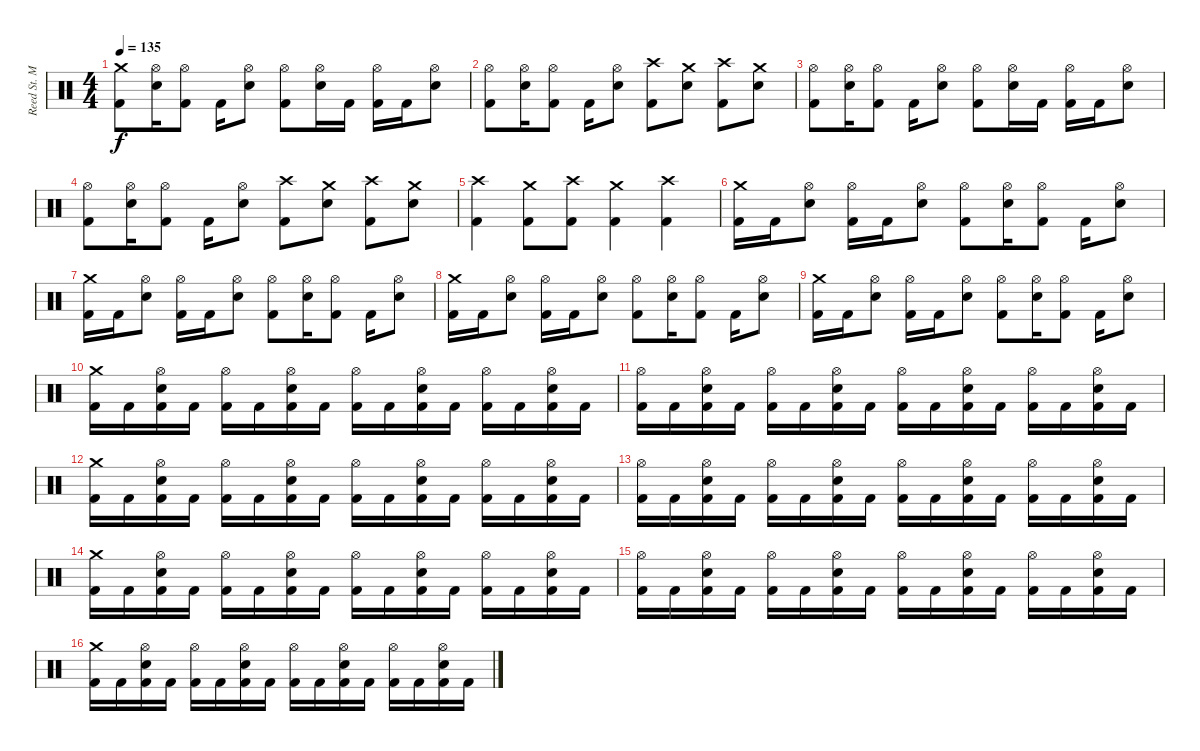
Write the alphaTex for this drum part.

\track ("Reed St. Mark" "Reed St. M") {instrument percussion}
\staff {score}
\articulation defaults
\ts (4 4)
\tempo 135
\clef neutral
\ks c
("Crash medium (hit)" "Kick (hit) 2").8{dy f} ("Hi-Hat (open)" "Snare (hit) 2").16 ("Hi-Hat (open)" "Kick (hit) 2").8 "Kick (hit) 2".16 ("Hi-Hat (open)" "Snare (hit) 2").8 ("Hi-Hat (open)" "Kick (hit) 2").8 ("Hi-Hat (open)" "Snare (hit) 2").16 "Kick (hit) 2".16 ("Hi-Hat (open)" "Kick (hit) 2").16 "Kick (hit) 2".16 ("Hi-Hat (open)" "Snare (hit) 2").8 |
("Hi-Hat (open)" "Kick (hit) 2").8 ("Hi-Hat (open)" "Snare (hit) 2").16 ("Hi-Hat (open)" "Kick (hit) 2").8 "Kick (hit) 2".16 ("Hi-Hat (open)" "Snare (hit) 2").8 ("Crash high (hit)" "Kick (hit) 2").8 ("Crash medium (hit)" "Snare (hit) 2").8 ("Crash high (hit)" "Kick (hit) 2").8 ("Crash medium (hit)" "Snare (hit) 2").8 |
("Hi-Hat (open)" "Kick (hit) 2").8 ("Hi-Hat (open)" "Snare (hit) 2").16 ("Hi-Hat (open)" "Kick (hit) 2").8 "Kick (hit) 2".16 ("Hi-Hat (open)" "Snare (hit) 2").8 ("Hi-Hat (open)" "Kick (hit) 2").8 ("Hi-Hat (open)" "Snare (hit) 2").16 "Kick (hit) 2".16 ("Hi-Hat (open)" "Kick (hit) 2").16 "Kick (hit) 2".16 ("Hi-Hat (open)" "Snare (hit) 2").8 |
("Hi-Hat (open)" "Kick (hit) 2").8 ("Hi-Hat (open)" "Snare (hit) 2").16 ("Hi-Hat (open)" "Kick (hit) 2").8 "Kick (hit) 2".16 ("Hi-Hat (open)" "Snare (hit) 2").8 ("Crash high (hit)" "Kick (hit) 2").8 ("Crash medium (hit)" "Snare (hit) 2").8 ("Crash high (hit)" "Kick (hit) 2").8 ("Crash medium (hit)" "Snare (hit) 2").8 |
("Crash high (hit)" "Kick (hit) 2").4 ("Crash medium (hit)" "Kick (hit) 2").8 ("Crash high (hit)" "Kick (hit) 2").8 ("Crash medium (hit)" "Kick (hit) 2").4 ("Crash high (hit)" "Kick (hit) 2").4 |
("Crash medium (hit)" "Kick (hit) 2").16 "Kick (hit) 2".16 ("Hi-Hat (open)" "Snare (hit) 2").8 ("Hi-Hat (open)" "Kick (hit) 2").16 "Kick (hit) 2".16 ("Hi-Hat (open)" "Snare (hit) 2").8 ("Hi-Hat (open)" "Kick (hit) 2").8 ("Hi-Hat (open)" "Snare (hit) 2").16 ("Hi-Hat (open)" "Kick (hit) 2").8 "Kick (hit) 2".16 ("Hi-Hat (open)" "Snare (hit) 2").8 |
("Crash medium (hit)" "Kick (hit) 2").16 "Kick (hit) 2".16 ("Hi-Hat (open)" "Snare (hit) 2").8 ("Hi-Hat (open)" "Kick (hit) 2").16 "Kick (hit) 2".16 ("Hi-Hat (open)" "Snare (hit) 2").8 ("Hi-Hat (open)" "Kick (hit) 2").8 ("Hi-Hat (open)" "Snare (hit) 2").16 ("Hi-Hat (open)" "Kick (hit) 2").8 "Kick (hit) 2".16 ("Hi-Hat (open)" "Snare (hit) 2").8 |
("Crash medium (hit)" "Kick (hit) 2").16 "Kick (hit) 2".16 ("Hi-Hat (open)" "Snare (hit) 2").8 ("Hi-Hat (open)" "Kick (hit) 2").16 "Kick (hit) 2".16 ("Hi-Hat (open)" "Snare (hit) 2").8 ("Hi-Hat (open)" "Kick (hit) 2").8 ("Hi-Hat (open)" "Snare (hit) 2").16 ("Hi-Hat (open)" "Kick (hit) 2").8 "Kick (hit) 2".16 ("Hi-Hat (open)" "Snare (hit) 2").8 |
("Crash medium (hit)" "Kick (hit) 2").16 "Kick (hit) 2".16 ("Hi-Hat (open)" "Snare (hit) 2").8 ("Hi-Hat (open)" "Kick (hit) 2").16 "Kick (hit) 2".16 ("Hi-Hat (open)" "Snare (hit) 2").8 ("Hi-Hat (open)" "Kick (hit) 2").8 ("Hi-Hat (open)" "Snare (hit) 2").16 ("Hi-Hat (open)" "Kick (hit) 2").8 "Kick (hit) 2".16 ("Hi-Hat (open)" "Snare (hit) 2").8 |
("Crash medium (hit)" "Kick (hit) 2").16 "Kick (hit) 2".16 ("Hi-Hat (open)" "Snare (hit) 2" "Kick (hit) 2").16 "Kick (hit) 2".16 ("Hi-Hat (open)" "Kick (hit) 2").16 "Kick (hit) 2".16 ("Hi-Hat (open)" "Snare (hit) 2" "Kick (hit) 2").16 "Kick (hit) 2".16 ("Hi-Hat (open)" "Kick (hit) 2").16 "Kick (hit) 2".16 ("Hi-Hat (open)" "Snare (hit) 2" "Kick (hit) 2").16 "Kick (hit) 2".16 ("Hi-Hat (open)" "Kick (hit) 2").16 "Kick (hit) 2".16 ("Hi-Hat (open)" "Snare (hit) 2" "Kick (hit) 2").16 "Kick (hit) 2".16 |
("Hi-Hat (open)" "Kick (hit) 2").16 "Kick (hit) 2".16 ("Hi-Hat (open)" "Snare (hit) 2" "Kick (hit) 2").16 "Kick (hit) 2".16 ("Hi-Hat (open)" "Kick (hit) 2").16 "Kick (hit) 2".16 ("Hi-Hat (open)" "Snare (hit) 2" "Kick (hit) 2").16 "Kick (hit) 2".16 ("Hi-Hat (open)" "Kick (hit) 2").16 "Kick (hit) 2".16 ("Hi-Hat (open)" "Snare (hit) 2" "Kick (hit) 2").16 "Kick (hit) 2".16 ("Hi-Hat (open)" "Kick (hit) 2").16 "Kick (hit) 2".16 ("Hi-Hat (open)" "Snare (hit) 2" "Kick (hit) 2").16 "Kick (hit) 2".16 |
("Crash medium (hit)" "Kick (hit) 2").16 "Kick (hit) 2".16 ("Hi-Hat (open)" "Snare (hit) 2" "Kick (hit) 2").16 "Kick (hit) 2".16 ("Hi-Hat (open)" "Kick (hit) 2").16 "Kick (hit) 2".16 ("Hi-Hat (open)" "Snare (hit) 2" "Kick (hit) 2").16 "Kick (hit) 2".16 ("Hi-Hat (open)" "Kick (hit) 2").16 "Kick (hit) 2".16 ("Hi-Hat (open)" "Snare (hit) 2" "Kick (hit) 2").16 "Kick (hit) 2".16 ("Hi-Hat (open)" "Kick (hit) 2").16 "Kick (hit) 2".16 ("Hi-Hat (open)" "Snare (hit) 2" "Kick (hit) 2").16 "Kick (hit) 2".16 |
("Hi-Hat (open)" "Kick (hit) 2").16 "Kick (hit) 2".16 ("Hi-Hat (open)" "Snare (hit) 2" "Kick (hit) 2").16 "Kick (hit) 2".16 ("Hi-Hat (open)" "Kick (hit) 2").16 "Kick (hit) 2".16 ("Hi-Hat (open)" "Snare (hit) 2" "Kick (hit) 2").16 "Kick (hit) 2".16 ("Hi-Hat (open)" "Kick (hit) 2").16 "Kick (hit) 2".16 ("Hi-Hat (open)" "Snare (hit) 2" "Kick (hit) 2").16 "Kick (hit) 2".16 ("Hi-Hat (open)" "Kick (hit) 2").16 "Kick (hit) 2".16 ("Hi-Hat (open)" "Snare (hit) 2" "Kick (hit) 2").16 "Kick (hit) 2".16 |
("Crash medium (hit)" "Kick (hit) 2").16 "Kick (hit) 2".16 ("Hi-Hat (open)" "Snare (hit) 2" "Kick (hit) 2").16 "Kick (hit) 2".16 ("Hi-Hat (open)" "Kick (hit) 2").16 "Kick (hit) 2".16 ("Hi-Hat (open)" "Snare (hit) 2" "Kick (hit) 2").16 "Kick (hit) 2".16 ("Hi-Hat (open)" "Kick (hit) 2").16 "Kick (hit) 2".16 ("Hi-Hat (open)" "Snare (hit) 2" "Kick (hit) 2").16 "Kick (hit) 2".16 ("Hi-Hat (open)" "Kick (hit) 2").16 "Kick (hit) 2".16 ("Hi-Hat (open)" "Snare (hit) 2" "Kick (hit) 2").16 "Kick (hit) 2".16 |
("Hi-Hat (open)" "Kick (hit) 2").16 "Kick (hit) 2".16 ("Hi-Hat (open)" "Snare (hit) 2" "Kick (hit) 2").16 "Kick (hit) 2".16 ("Hi-Hat (open)" "Kick (hit) 2").16 "Kick (hit) 2".16 ("Hi-Hat (open)" "Snare (hit) 2" "Kick (hit) 2").16 "Kick (hit) 2".16 ("Hi-Hat (open)" "Kick (hit) 2").16 "Kick (hit) 2".16 ("Hi-Hat (open)" "Snare (hit) 2" "Kick (hit) 2").16 "Kick (hit) 2".16 ("Hi-Hat (open)" "Kick (hit) 2").16 "Kick (hit) 2".16 ("Hi-Hat (open)" "Snare (hit) 2" "Kick (hit) 2").16 "Kick (hit) 2".16 |
("Crash medium (hit)" "Kick (hit) 2").16 "Kick (hit) 2".16 ("Hi-Hat (open)" "Snare (hit) 2" "Kick (hit) 2").16 "Kick (hit) 2".16 ("Hi-Hat (open)" "Kick (hit) 2").16 "Kick (hit) 2".16 ("Hi-Hat (open)" "Snare (hit) 2" "Kick (hit) 2").16 "Kick (hit) 2".16 ("Hi-Hat (open)" "Kick (hit) 2").16 "Kick (hit) 2".16 ("Hi-Hat (open)" "Snare (hit) 2" "Kick (hit) 2").16 "Kick (hit) 2".16 ("Hi-Hat (open)" "Kick (hit) 2").16 "Kick (hit) 2".16 ("Hi-Hat (open)" "Snare (hit) 2" "Kick (hit) 2").16 "Kick (hit) 2".16
